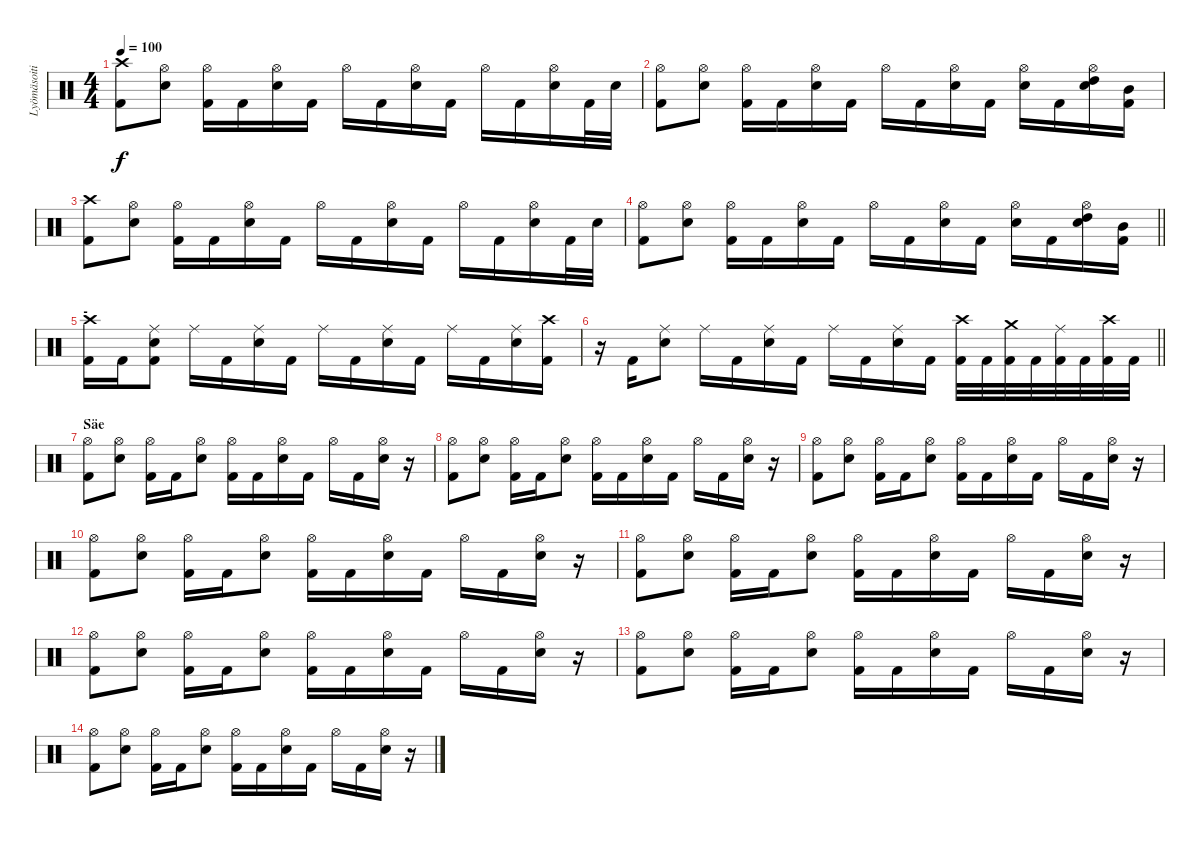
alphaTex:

\track ("Lyömäsoitin" "Lyömäsoiti") {instrument percussion}
\staff {score}
\articulation defaults
\ts (4 4)
\tempo 100
\clef neutral
\ks c
("Crash high (hit)" "Kick (hit) 2").8{dy f} ("Hi-Hat (open)" "Snare (hit) 2").8 ("Hi-Hat (open)" "Kick (hit) 2").16 "Kick (hit) 2".16 ("Hi-Hat (open)" "Snare (hit) 2").16 "Kick (hit) 2".16 "Hi-Hat (open)".16 "Kick (hit) 2".16 ("Hi-Hat (open)" "Snare (hit) 2").16 "Kick (hit) 2".16 "Hi-Hat (open)".16 "Kick (hit) 2".16 ("Hi-Hat (open)" "Snare (hit) 2").16 "Kick (hit) 2".32 "Snare (hit) 2".32 |
("Hi-Hat (open)" "Kick (hit) 2").8 ("Hi-Hat (open)" "Snare (hit) 2").8 ("Hi-Hat (open)" "Kick (hit) 2").16 "Kick (hit) 2".16 ("Hi-Hat (open)" "Snare (hit) 2").16 "Kick (hit) 2".16 "Hi-Hat (open)".16 "Kick (hit) 2".16 ("Hi-Hat (open)" "Snare (hit) 2").16 "Kick (hit) 2".16 ("Hi-Hat (open)" "Snare (hit) 2").16 "Kick (hit) 2".16 ("Hi-Hat (open)" "High Tom (hit)" "Snare (hit) 2").16 ("Mid Tom (hit)" "Kick (hit) 2").16 |
("Crash high (hit)" "Kick (hit) 2").8 ("Hi-Hat (open)" "Snare (hit) 2").8 ("Hi-Hat (open)" "Kick (hit) 2").16 "Kick (hit) 2".16 ("Hi-Hat (open)" "Snare (hit) 2").16 "Kick (hit) 2".16 "Hi-Hat (open)".16 "Kick (hit) 2".16 ("Hi-Hat (open)" "Snare (hit) 2").16 "Kick (hit) 2".16 "Hi-Hat (open)".16 "Kick (hit) 2".16 ("Hi-Hat (open)" "Snare (hit) 2").16 "Kick (hit) 2".32 "Snare (hit) 2".32 |
\barLineRight lightlight
("Hi-Hat (open)" "Kick (hit) 2").8 ("Hi-Hat (open)" "Snare (hit) 2").8 ("Hi-Hat (open)" "Kick (hit) 2").16 "Kick (hit) 2".16 ("Hi-Hat (open)" "Snare (hit) 2").16 "Kick (hit) 2".16 "Hi-Hat (open)".16 "Kick (hit) 2".16 ("Hi-Hat (open)" "Snare (hit) 2").16 "Kick (hit) 2".16 ("Hi-Hat (open)" "Snare (hit) 2").16 "Kick (hit) 2".16 ("Hi-Hat (open)" "High Tom (hit)" "Snare (hit) 2").16 ("Mid Tom (hit)" "Kick (hit) 2").16 |
\section ("" "-")
("Crash high (hit)" "Kick (hit) 2").16 "Kick (hit) 2".16 ("Ride (middle)" "Snare (hit) 2" "Kick (hit) 2").8 "Ride (middle)".16 "Kick (hit) 2".16 ("Ride (middle)" "Snare (hit) 2").16 "Kick (hit) 2".16 "Ride (middle)".16 "Kick (hit) 2".16 ("Ride (middle)" "Snare (hit) 2").16 "Kick (hit) 2".16 "Ride (middle)".16 "Kick (hit) 2".16 ("Ride (middle)" "Snare (hit) 2").16 ("Crash high (hit)" "Kick (hit) 2").16 |
\barLineRight lightlight
r.16 "Kick (hit) 2".16 ("Ride (middle)" "Snare (hit) 2").8 "Ride (middle)".16 "Kick (hit) 2".16 ("Ride (middle)" "Snare (hit) 2").16 "Kick (hit) 2".16 "Ride (middle)".16 "Kick (hit) 2".16 ("Ride (middle)" "Snare (hit) 2").16 "Kick (hit) 2".16 ("Crash high (hit)" "Kick (hit) 2").32 "Kick (hit) 2".32 ("Crash medium (hit)" "Kick (hit) 2").32 "Kick (hit) 2".32 ("Ride (middle)" "Kick (hit) 2").32 "Kick (hit) 2".32 ("Crash high (hit)" "Kick (hit) 2").32 "Kick (hit) 2".32 |
\section ("" "Säe")
("Hi-Hat (open)" "Kick (hit) 2").8 ("Hi-Hat (open)" "Snare (hit) 2").8 ("Hi-Hat (open)" "Kick (hit) 2").16 "Kick (hit) 2".16 ("Hi-Hat (open)" "Snare (hit) 2").8 ("Hi-Hat (open)" "Kick (hit) 2").16 "Kick (hit) 2".16 ("Hi-Hat (open)" "Snare (hit) 2").16 "Kick (hit) 2".16 "Hi-Hat (open)".16 "Kick (hit) 2".16 ("Hi-Hat (open)" "Snare (hit) 2").16 r.16 |
("Hi-Hat (open)" "Kick (hit) 2").8 ("Hi-Hat (open)" "Snare (hit) 2").8 ("Hi-Hat (open)" "Kick (hit) 2").16 "Kick (hit) 2".16 ("Hi-Hat (open)" "Snare (hit) 2").8 ("Hi-Hat (open)" "Kick (hit) 2").16 "Kick (hit) 2".16 ("Hi-Hat (open)" "Snare (hit) 2").16 "Kick (hit) 2".16 "Hi-Hat (open)".16 "Kick (hit) 2".16 ("Hi-Hat (open)" "Snare (hit) 2").16 r.16 |
("Hi-Hat (open)" "Kick (hit) 2").8 ("Hi-Hat (open)" "Snare (hit) 2").8 ("Hi-Hat (open)" "Kick (hit) 2").16 "Kick (hit) 2".16 ("Hi-Hat (open)" "Snare (hit) 2").8 ("Hi-Hat (open)" "Kick (hit) 2").16 "Kick (hit) 2".16 ("Hi-Hat (open)" "Snare (hit) 2").16 "Kick (hit) 2".16 "Hi-Hat (open)".16 "Kick (hit) 2".16 ("Hi-Hat (open)" "Snare (hit) 2").16 r.16 |
("Hi-Hat (open)" "Kick (hit) 2").8 ("Hi-Hat (open)" "Snare (hit) 2").8 ("Hi-Hat (open)" "Kick (hit) 2").16 "Kick (hit) 2".16 ("Hi-Hat (open)" "Snare (hit) 2").8 ("Hi-Hat (open)" "Kick (hit) 2").16 "Kick (hit) 2".16 ("Hi-Hat (open)" "Snare (hit) 2").16 "Kick (hit) 2".16 "Hi-Hat (open)".16 "Kick (hit) 2".16 ("Hi-Hat (open)" "Snare (hit) 2").16 r.16 |
("Hi-Hat (open)" "Kick (hit) 2").8 ("Hi-Hat (open)" "Snare (hit) 2").8 ("Hi-Hat (open)" "Kick (hit) 2").16 "Kick (hit) 2".16 ("Hi-Hat (open)" "Snare (hit) 2").8 ("Hi-Hat (open)" "Kick (hit) 2").16 "Kick (hit) 2".16 ("Hi-Hat (open)" "Snare (hit) 2").16 "Kick (hit) 2".16 "Hi-Hat (open)".16 "Kick (hit) 2".16 ("Hi-Hat (open)" "Snare (hit) 2").16 r.16 |
("Hi-Hat (open)" "Kick (hit) 2").8 ("Hi-Hat (open)" "Snare (hit) 2").8 ("Hi-Hat (open)" "Kick (hit) 2").16 "Kick (hit) 2".16 ("Hi-Hat (open)" "Snare (hit) 2").8 ("Hi-Hat (open)" "Kick (hit) 2").16 "Kick (hit) 2".16 ("Hi-Hat (open)" "Snare (hit) 2").16 "Kick (hit) 2".16 "Hi-Hat (open)".16 "Kick (hit) 2".16 ("Hi-Hat (open)" "Snare (hit) 2").16 r.16 |
("Hi-Hat (open)" "Kick (hit) 2").8 ("Hi-Hat (open)" "Snare (hit) 2").8 ("Hi-Hat (open)" "Kick (hit) 2").16 "Kick (hit) 2".16 ("Hi-Hat (open)" "Snare (hit) 2").8 ("Hi-Hat (open)" "Kick (hit) 2").16 "Kick (hit) 2".16 ("Hi-Hat (open)" "Snare (hit) 2").16 "Kick (hit) 2".16 "Hi-Hat (open)".16 "Kick (hit) 2".16 ("Hi-Hat (open)" "Snare (hit) 2").16 r.16 |
("Hi-Hat (open)" "Kick (hit) 2").8 ("Hi-Hat (open)" "Snare (hit) 2").8 ("Hi-Hat (open)" "Kick (hit) 2").16 "Kick (hit) 2".16 ("Hi-Hat (open)" "Snare (hit) 2").8 ("Hi-Hat (open)" "Kick (hit) 2").16 "Kick (hit) 2".16 ("Hi-Hat (open)" "Snare (hit) 2").16 "Kick (hit) 2".16 "Hi-Hat (open)".16 "Kick (hit) 2".16 ("Hi-Hat (open)" "Snare (hit) 2").16 r.16
